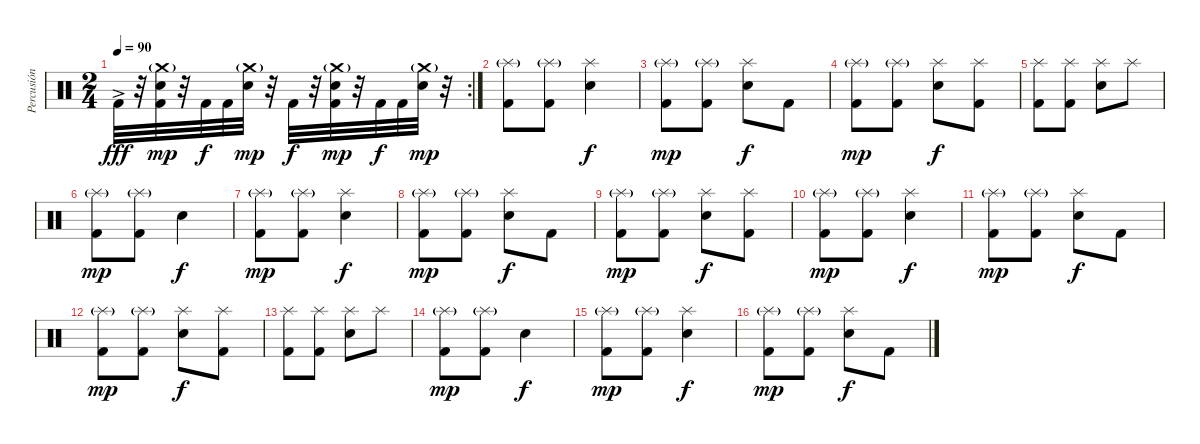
\track ("Percusión" "Percusión") {instrument percussion}
\staff {score}
\articulation defaults
\rc 2
\ts (2 4)
\tempo 90
\clef neutral
\ks c "Kick (hit) 2"{ac}.32{dy fff}
r.32 ("Kick (hit) 2" "Electric Snare (hit)" "Crash medium (hit)"{g}).32{dy mp} r.32 "Kick (hit) 2".32{dy f} "Kick (hit) 2".32 ("Electric Snare (hit)" "Crash medium (hit)"{g}).32{dy mp} r.32 "Kick (hit) 2".32{dy f} r.32 ("Kick (hit) 2" "Electric Snare (hit)" "Crash medium (hit)"{g}).32{dy mp} r.32 "Kick (hit) 2".32{dy f} "Kick (hit) 2".32 ("Electric Snare (hit)" "Crash medium (hit)"{g}).32{dy mp} r.32 |
("Splash (hit)"{g} "Kick (hit) 2").8 ("Splash (hit)"{g} "Kick (hit) 2").8 ("Electric Snare (hit)" "Splash (hit)").4{dy f} |
("Splash (hit)"{g} "Kick (hit) 2").8{dy mp} ("Splash (hit)"{g} "Kick (hit) 2").8 ("Electric Snare (hit)" "Splash (hit)").8{dy f} "Kick (hit) 2".8 |
("Splash (hit)"{g} "Kick (hit) 2").8{dy mp} ("Splash (hit)"{g} "Kick (hit) 2").8 ("Electric Snare (hit)" "Splash (hit)").8{dy f} ("Splash (hit)" "Kick (hit) 2").8 |
("Splash (hit)" "Kick (hit) 2").8 ("Splash (hit)" "Kick (hit) 2").8 ("Splash (hit)" "Electric Snare (hit)").8 "Splash (hit)".8 |
("Splash (hit)"{g} "Kick (hit) 2").8{dy mp} ("Splash (hit)"{g} "Kick (hit) 2").8 "Electric Snare (hit)".4{dy f} |
("Splash (hit)"{g} "Kick (hit) 2").8{dy mp} ("Splash (hit)"{g} "Kick (hit) 2").8 ("Electric Snare (hit)" "Splash (hit)").4{dy f} |
("Splash (hit)"{g} "Kick (hit) 2").8{dy mp} ("Splash (hit)"{g} "Kick (hit) 2").8 ("Electric Snare (hit)" "Splash (hit)").8{dy f} "Kick (hit) 2".8 |
("Splash (hit)"{g} "Kick (hit) 2").8{dy mp} ("Splash (hit)"{g} "Kick (hit) 2").8 ("Electric Snare (hit)" "Splash (hit)").8{dy f} ("Splash (hit)" "Kick (hit) 2").8 |
("Splash (hit)"{g} "Kick (hit) 2").8{dy mp} ("Splash (hit)"{g} "Kick (hit) 2").8 ("Electric Snare (hit)" "Splash (hit)").4{dy f} |
("Splash (hit)"{g} "Kick (hit) 2").8{dy mp} ("Splash (hit)"{g} "Kick (hit) 2").8 ("Electric Snare (hit)" "Splash (hit)").8{dy f} "Kick (hit) 2".8 |
("Splash (hit)"{g} "Kick (hit) 2").8{dy mp} ("Splash (hit)"{g} "Kick (hit) 2").8 ("Electric Snare (hit)" "Splash (hit)").8{dy f} ("Splash (hit)" "Kick (hit) 2").8 |
("Splash (hit)" "Kick (hit) 2").8 ("Splash (hit)" "Kick (hit) 2").8 ("Splash (hit)" "Electric Snare (hit)").8 "Splash (hit)".8 |
("Splash (hit)"{g} "Kick (hit) 2").8{dy mp} ("Splash (hit)"{g} "Kick (hit) 2").8 "Electric Snare (hit)".4{dy f} |
("Splash (hit)"{g} "Kick (hit) 2").8{dy mp} ("Splash (hit)"{g} "Kick (hit) 2").8 ("Electric Snare (hit)" "Splash (hit)").4{dy f} |
("Splash (hit)"{g} "Kick (hit) 2").8{dy mp} ("Splash (hit)"{g} "Kick (hit) 2").8 ("Electric Snare (hit)" "Splash (hit)").8{dy f} "Kick (hit) 2".8
